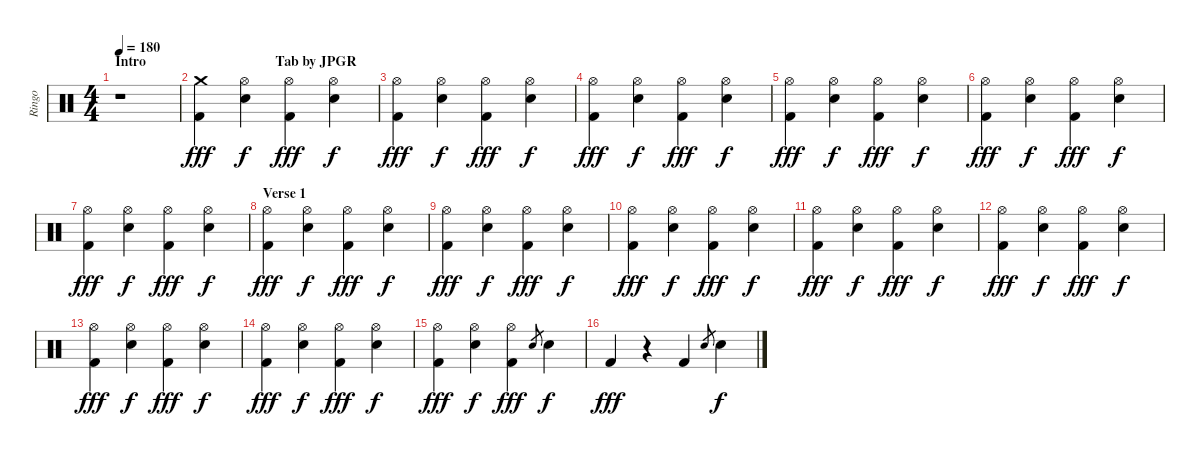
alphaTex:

\track ("Ringo" "Ringo") {instrument percussion}
\staff {score}
\articulation defaults
\ts (4 4)
\section ("" "Intro                                     Tab by JPGR")
\tempo 180
\clef neutral
\ks c
r.1{dy fff} |
("Crash medium (hit)" "Kick (hit) 2").4 ("Hi-Hat (open)" "Snare (hit) 2").4{dy f} ("Hi-Hat (open)" "Kick (hit) 2").4{dy fff} ("Hi-Hat (open)" "Snare (hit) 2").4{dy f} |
("Hi-Hat (open)" "Kick (hit) 2").4{dy fff} ("Hi-Hat (open)" "Snare (hit) 2").4{dy f} ("Hi-Hat (open)" "Kick (hit) 2").4{dy fff} ("Hi-Hat (open)" "Snare (hit) 2").4{dy f} |
("Hi-Hat (open)" "Kick (hit) 2").4{dy fff} ("Hi-Hat (open)" "Snare (hit) 2").4{dy f} ("Hi-Hat (open)" "Kick (hit) 2").4{dy fff} ("Hi-Hat (open)" "Snare (hit) 2").4{dy f} |
("Hi-Hat (open)" "Kick (hit) 2").4{dy fff} ("Hi-Hat (open)" "Snare (hit) 2").4{dy f} ("Hi-Hat (open)" "Kick (hit) 2").4{dy fff} ("Hi-Hat (open)" "Snare (hit) 2").4{dy f} |
("Hi-Hat (open)" "Kick (hit) 2").4{dy fff} ("Hi-Hat (open)" "Snare (hit) 2").4{dy f} ("Hi-Hat (open)" "Kick (hit) 2").4{dy fff} ("Hi-Hat (open)" "Snare (hit) 2").4{dy f} |
("Hi-Hat (open)" "Kick (hit) 2").4{dy fff} ("Hi-Hat (open)" "Snare (hit) 2").4{dy f} ("Hi-Hat (open)" "Kick (hit) 2").4{dy fff} ("Hi-Hat (open)" "Snare (hit) 2").4{dy f} |
\section ("" "Verse 1")
("Hi-Hat (open)" "Kick (hit) 2").4{dy fff} ("Hi-Hat (open)" "Snare (hit) 2").4{dy f} ("Hi-Hat (open)" "Kick (hit) 2").4{dy fff} ("Hi-Hat (open)" "Snare (hit) 2").4{dy f} |
("Hi-Hat (open)" "Kick (hit) 2").4{dy fff} ("Hi-Hat (open)" "Snare (hit) 2").4{dy f} ("Hi-Hat (open)" "Kick (hit) 2").4{dy fff} ("Hi-Hat (open)" "Snare (hit) 2").4{dy f} |
("Hi-Hat (open)" "Kick (hit) 2").4{dy fff} ("Hi-Hat (open)" "Snare (hit) 2").4{dy f} ("Hi-Hat (open)" "Kick (hit) 2").4{dy fff} ("Hi-Hat (open)" "Snare (hit) 2").4{dy f} |
("Hi-Hat (open)" "Kick (hit) 2").4{dy fff} ("Hi-Hat (open)" "Snare (hit) 2").4{dy f} ("Hi-Hat (open)" "Kick (hit) 2").4{dy fff} ("Hi-Hat (open)" "Snare (hit) 2").4{dy f} |
("Hi-Hat (open)" "Kick (hit) 2").4{dy fff} ("Hi-Hat (open)" "Snare (hit) 2").4{dy f} ("Hi-Hat (open)" "Kick (hit) 2").4{dy fff} ("Hi-Hat (open)" "Snare (hit) 2").4{dy f} |
("Hi-Hat (open)" "Kick (hit) 2").4{dy fff} ("Hi-Hat (open)" "Snare (hit) 2").4{dy f} ("Hi-Hat (open)" "Kick (hit) 2").4{dy fff} ("Hi-Hat (open)" "Snare (hit) 2").4{dy f} |
("Hi-Hat (open)" "Kick (hit) 2").4{dy fff} ("Hi-Hat (open)" "Snare (hit) 2").4{dy f} ("Hi-Hat (open)" "Kick (hit) 2").4{dy fff} ("Hi-Hat (open)" "Snare (hit) 2").4{dy f} |
("Hi-Hat (open)" "Kick (hit) 2").4{dy fff} ("Hi-Hat (open)" "Snare (hit) 2").4{dy f} ("Hi-Hat (open)" "Kick (hit) 2").4{dy fff} "Snare (hit) 2".8{gr} "Snare (hit) 2".4{dy f} |
"Kick (hit) 2".4{dy fff} r.4 "Kick (hit) 2".4 "Snare (hit) 2".8{gr} "Snare (hit) 2".4{dy f}
